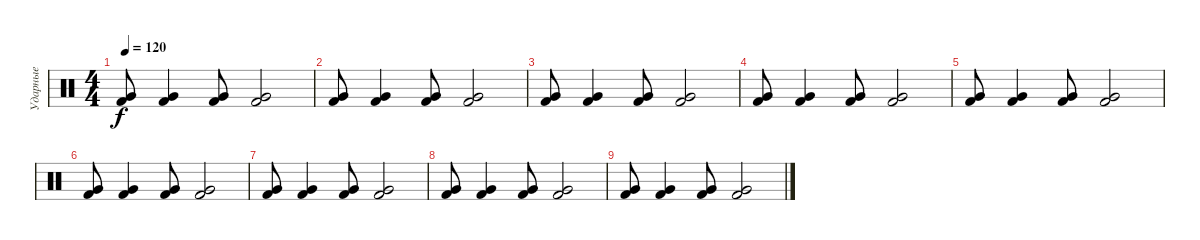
\track ("Ударные" "Ударные") {instrument percussion}
\staff {score}
\articulation defaults
\ts (4 4)
\tempo 120
\clef neutral
\ks c
("Very Low Tom (hit)" "Kick (hit) 2").8{dy f} ("Very Low Tom (hit)" "Kick (hit) 2").4 ("Very Low Tom (hit)" "Kick (hit) 2").8 ("Very Low Tom (hit)" "Kick (hit) 2").2 |
("Very Low Tom (hit)" "Kick (hit) 2").8 ("Very Low Tom (hit)" "Kick (hit) 2").4 ("Very Low Tom (hit)" "Kick (hit) 2").8 ("Very Low Tom (hit)" "Kick (hit) 2").2 |
("Very Low Tom (hit)" "Kick (hit) 2").8 ("Very Low Tom (hit)" "Kick (hit) 2").4 ("Very Low Tom (hit)" "Kick (hit) 2").8 ("Very Low Tom (hit)" "Kick (hit) 2").2 |
("Very Low Tom (hit)" "Kick (hit) 2").8 ("Very Low Tom (hit)" "Kick (hit) 2").4 ("Very Low Tom (hit)" "Kick (hit) 2").8 ("Very Low Tom (hit)" "Kick (hit) 2").2 |
("Very Low Tom (hit)" "Kick (hit) 2").8 ("Very Low Tom (hit)" "Kick (hit) 2").4 ("Very Low Tom (hit)" "Kick (hit) 2").8 ("Very Low Tom (hit)" "Kick (hit) 2").2 |
("Very Low Tom (hit)" "Kick (hit) 2").8 ("Very Low Tom (hit)" "Kick (hit) 2").4 ("Very Low Tom (hit)" "Kick (hit) 2").8 ("Very Low Tom (hit)" "Kick (hit) 2").2 |
("Very Low Tom (hit)" "Kick (hit) 2").8 ("Very Low Tom (hit)" "Kick (hit) 2").4 ("Very Low Tom (hit)" "Kick (hit) 2").8 ("Very Low Tom (hit)" "Kick (hit) 2").2 |
("Very Low Tom (hit)" "Kick (hit) 2").8 ("Very Low Tom (hit)" "Kick (hit) 2").4 ("Very Low Tom (hit)" "Kick (hit) 2").8 ("Very Low Tom (hit)" "Kick (hit) 2").2 |
("Very Low Tom (hit)" "Kick (hit) 2").8 ("Very Low Tom (hit)" "Kick (hit) 2").4 ("Very Low Tom (hit)" "Kick (hit) 2").8 ("Very Low Tom (hit)" "Kick (hit) 2").2
